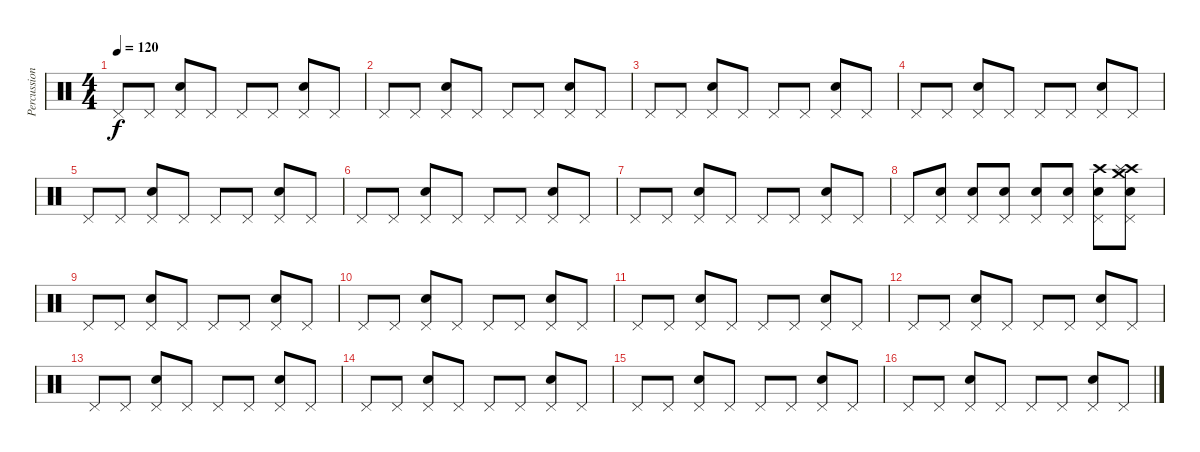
\track ("Percussions" "Percussion") {instrument percussion}
\staff {score}
\articulation defaults
\ts (4 4)
\tempo 120
\clef neutral
\ks c "Pedal Hi-Hat (hit)".8{dy f} "Pedal Hi-Hat (hit)".8
("Pedal Hi-Hat (hit)" "Electric Snare (hit)").8 "Pedal Hi-Hat (hit)".8 "Pedal Hi-Hat (hit)".8 "Pedal Hi-Hat (hit)".8 ("Pedal Hi-Hat (hit)" "Electric Snare (hit)").8 "Pedal Hi-Hat (hit)".8 |
"Pedal Hi-Hat (hit)".8 "Pedal Hi-Hat (hit)".8 ("Pedal Hi-Hat (hit)" "Electric Snare (hit)").8 "Pedal Hi-Hat (hit)".8 "Pedal Hi-Hat (hit)".8 "Pedal Hi-Hat (hit)".8 ("Pedal Hi-Hat (hit)" "Electric Snare (hit)").8 "Pedal Hi-Hat (hit)".8 |
"Pedal Hi-Hat (hit)".8 "Pedal Hi-Hat (hit)".8 ("Pedal Hi-Hat (hit)" "Electric Snare (hit)").8 "Pedal Hi-Hat (hit)".8 "Pedal Hi-Hat (hit)".8 "Pedal Hi-Hat (hit)".8 ("Pedal Hi-Hat (hit)" "Electric Snare (hit)").8 "Pedal Hi-Hat (hit)".8 |
"Pedal Hi-Hat (hit)".8 "Pedal Hi-Hat (hit)".8 ("Pedal Hi-Hat (hit)" "Electric Snare (hit)").8 "Pedal Hi-Hat (hit)".8 "Pedal Hi-Hat (hit)".8 "Pedal Hi-Hat (hit)".8 ("Pedal Hi-Hat (hit)" "Electric Snare (hit)").8 "Pedal Hi-Hat (hit)".8 |
"Pedal Hi-Hat (hit)".8 "Pedal Hi-Hat (hit)".8 ("Pedal Hi-Hat (hit)" "Electric Snare (hit)").8 "Pedal Hi-Hat (hit)".8 "Pedal Hi-Hat (hit)".8 "Pedal Hi-Hat (hit)".8 ("Pedal Hi-Hat (hit)" "Electric Snare (hit)").8 "Pedal Hi-Hat (hit)".8 |
"Pedal Hi-Hat (hit)".8 "Pedal Hi-Hat (hit)".8 ("Pedal Hi-Hat (hit)" "Electric Snare (hit)").8 "Pedal Hi-Hat (hit)".8 "Pedal Hi-Hat (hit)".8 "Pedal Hi-Hat (hit)".8 ("Pedal Hi-Hat (hit)" "Electric Snare (hit)").8 "Pedal Hi-Hat (hit)".8 |
"Pedal Hi-Hat (hit)".8 "Pedal Hi-Hat (hit)".8 ("Pedal Hi-Hat (hit)" "Electric Snare (hit)").8 "Pedal Hi-Hat (hit)".8 "Pedal Hi-Hat (hit)".8 "Pedal Hi-Hat (hit)".8 ("Pedal Hi-Hat (hit)" "Electric Snare (hit)").8 "Pedal Hi-Hat (hit)".8 |
"Pedal Hi-Hat (hit)".8 ("Pedal Hi-Hat (hit)" "Electric Snare (hit)").8 ("Pedal Hi-Hat (hit)" "Electric Snare (hit)").8 ("Pedal Hi-Hat (hit)" "Electric Snare (hit)").8 ("Pedal Hi-Hat (hit)" "Electric Snare (hit)").8 ("Pedal Hi-Hat (hit)" "Electric Snare (hit)").8 ("Pedal Hi-Hat (hit)" "Electric Snare (hit)" "Crash high (hit)").8 ("Pedal Hi-Hat (hit)" "Electric Snare (hit)" "Crash high (hit)" "Splash (hit)" "Crash medium (hit)").8 |
"Pedal Hi-Hat (hit)".8 "Pedal Hi-Hat (hit)".8 ("Pedal Hi-Hat (hit)" "Electric Snare (hit)").8 "Pedal Hi-Hat (hit)".8 "Pedal Hi-Hat (hit)".8 "Pedal Hi-Hat (hit)".8 ("Pedal Hi-Hat (hit)" "Electric Snare (hit)").8 "Pedal Hi-Hat (hit)".8 |
"Pedal Hi-Hat (hit)".8 "Pedal Hi-Hat (hit)".8 ("Pedal Hi-Hat (hit)" "Electric Snare (hit)").8 "Pedal Hi-Hat (hit)".8 "Pedal Hi-Hat (hit)".8 "Pedal Hi-Hat (hit)".8 ("Pedal Hi-Hat (hit)" "Electric Snare (hit)").8 "Pedal Hi-Hat (hit)".8 |
"Pedal Hi-Hat (hit)".8 "Pedal Hi-Hat (hit)".8 ("Pedal Hi-Hat (hit)" "Electric Snare (hit)").8 "Pedal Hi-Hat (hit)".8 "Pedal Hi-Hat (hit)".8 "Pedal Hi-Hat (hit)".8 ("Pedal Hi-Hat (hit)" "Electric Snare (hit)").8 "Pedal Hi-Hat (hit)".8 |
"Pedal Hi-Hat (hit)".8 "Pedal Hi-Hat (hit)".8 ("Pedal Hi-Hat (hit)" "Electric Snare (hit)").8 "Pedal Hi-Hat (hit)".8 "Pedal Hi-Hat (hit)".8 "Pedal Hi-Hat (hit)".8 ("Pedal Hi-Hat (hit)" "Electric Snare (hit)").8 "Pedal Hi-Hat (hit)".8 |
"Pedal Hi-Hat (hit)".8 "Pedal Hi-Hat (hit)".8 ("Pedal Hi-Hat (hit)" "Electric Snare (hit)").8 "Pedal Hi-Hat (hit)".8 "Pedal Hi-Hat (hit)".8 "Pedal Hi-Hat (hit)".8 ("Pedal Hi-Hat (hit)" "Electric Snare (hit)").8 "Pedal Hi-Hat (hit)".8 |
"Pedal Hi-Hat (hit)".8 "Pedal Hi-Hat (hit)".8 ("Pedal Hi-Hat (hit)" "Electric Snare (hit)").8 "Pedal Hi-Hat (hit)".8 "Pedal Hi-Hat (hit)".8 "Pedal Hi-Hat (hit)".8 ("Pedal Hi-Hat (hit)" "Electric Snare (hit)").8 "Pedal Hi-Hat (hit)".8 |
"Pedal Hi-Hat (hit)".8 "Pedal Hi-Hat (hit)".8 ("Pedal Hi-Hat (hit)" "Electric Snare (hit)").8 "Pedal Hi-Hat (hit)".8 "Pedal Hi-Hat (hit)".8 "Pedal Hi-Hat (hit)".8 ("Pedal Hi-Hat (hit)" "Electric Snare (hit)").8 "Pedal Hi-Hat (hit)".8 |
"Pedal Hi-Hat (hit)".8 "Pedal Hi-Hat (hit)".8 ("Pedal Hi-Hat (hit)" "Electric Snare (hit)").8 "Pedal Hi-Hat (hit)".8 "Pedal Hi-Hat (hit)".8 "Pedal Hi-Hat (hit)".8 ("Pedal Hi-Hat (hit)" "Electric Snare (hit)").8 "Pedal Hi-Hat (hit)".8
